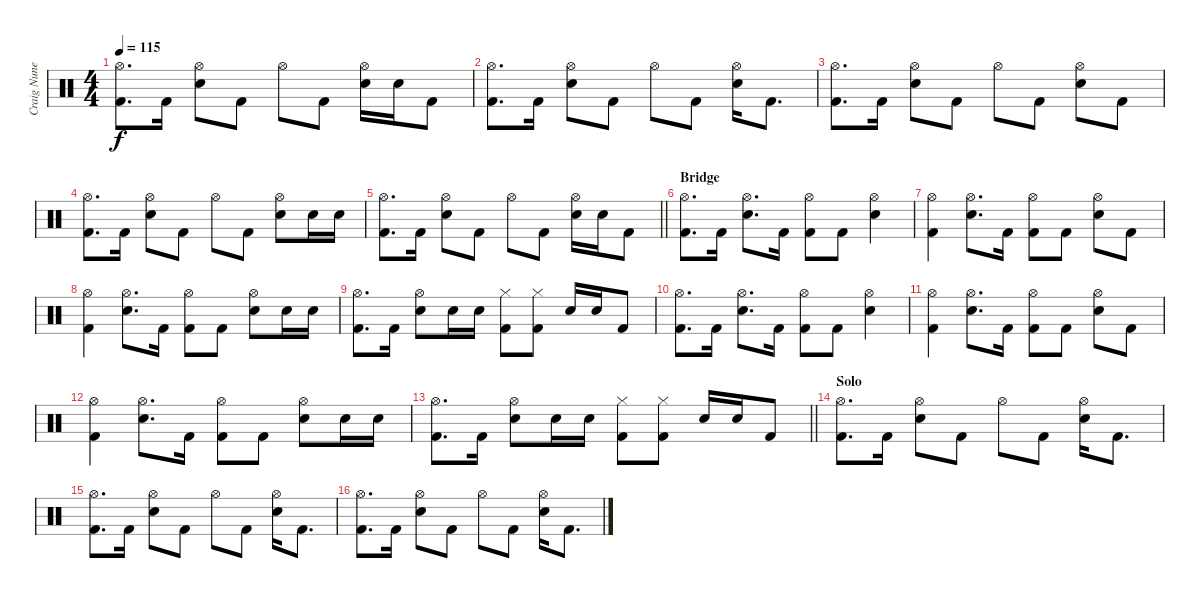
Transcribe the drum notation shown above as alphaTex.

\track ("Craig Nunenmacher" "Craig Nune") {instrument percussion}
\staff {score}
\articulation defaults
\ts (4 4)
\tempo 115
\clef neutral
\ks c
("Hi-Hat (open)" "Kick (hit) 2").8{d dy f} "Kick (hit) 2".16 ("Hi-Hat (open)" "Snare (hit) 2").8 "Kick (hit) 2".8 "Hi-Hat (open)".8 "Kick (hit) 2".8 ("Hi-Hat (open)" "Snare (hit) 2").16 "Snare (hit) 2".16 "Kick (hit) 2".8 |
("Hi-Hat (open)" "Kick (hit) 2").8{d} "Kick (hit) 2".16 ("Hi-Hat (open)" "Snare (hit) 2").8 "Kick (hit) 2".8 "Hi-Hat (open)".8 "Kick (hit) 2".8 ("Hi-Hat (open)" "Snare (hit) 2").16 "Kick (hit) 2".8{d} |
("Hi-Hat (open)" "Kick (hit) 2").8{d} "Kick (hit) 2".16 ("Hi-Hat (open)" "Snare (hit) 2").8 "Kick (hit) 2".8 "Hi-Hat (open)".8 "Kick (hit) 2".8 ("Hi-Hat (open)" "Snare (hit) 2").8 "Kick (hit) 2".8 |
("Hi-Hat (open)" "Kick (hit) 2").8{d} "Kick (hit) 2".16 ("Hi-Hat (open)" "Snare (hit) 2").8 "Kick (hit) 2".8 "Hi-Hat (open)".8 "Kick (hit) 2".8 ("Hi-Hat (open)" "Snare (hit) 2").8 "Snare (hit) 2".16 "Snare (hit) 2".16 |
\barLineRight lightlight
("Hi-Hat (open)" "Kick (hit) 2").8{d} "Kick (hit) 2".16 ("Hi-Hat (open)" "Snare (hit) 2").8 "Kick (hit) 2".8 "Hi-Hat (open)".8 "Kick (hit) 2".8 ("Hi-Hat (open)" "Snare (hit) 2").16 "Snare (hit) 2".16 "Kick (hit) 2".8 |
\section ("" "Bridge")
("Hi-Hat (open)" "Kick (hit) 2").8{d} "Kick (hit) 2".16 ("Hi-Hat (open)" "Snare (hit) 2").8{d} "Kick (hit) 2".16 ("Hi-Hat (open)" "Kick (hit) 2").8 "Kick (hit) 2".8 ("Hi-Hat (open)" "Snare (hit) 2").4 |
("Hi-Hat (open)" "Kick (hit) 2").4 ("Hi-Hat (open)" "Snare (hit) 2").8{d} "Kick (hit) 2".16 ("Hi-Hat (open)" "Kick (hit) 2").8 "Kick (hit) 2".8 ("Hi-Hat (open)" "Snare (hit) 2").8 "Kick (hit) 2".8 |
("Hi-Hat (open)" "Kick (hit) 2").4 ("Hi-Hat (open)" "Snare (hit) 2").8{d} "Kick (hit) 2".16 ("Hi-Hat (open)" "Kick (hit) 2").8 "Kick (hit) 2".8 ("Hi-Hat (open)" "Snare (hit) 2").8 "Snare (hit) 2".16 "Snare (hit) 2".16 |
("Hi-Hat (open)" "Kick (hit) 2").8{d} "Kick (hit) 2".16 ("Hi-Hat (open)" "Snare (hit) 2").8 "Snare (hit) 2".16 "Snare (hit) 2".16 ("Hi-Hat (closed)" "Kick (hit) 2").8 ("Hi-Hat (closed)" "Kick (hit) 2").8 "Snare (hit) 2".16 "Snare (hit) 2".16 "Kick (hit) 2".8 |
("Hi-Hat (open)" "Kick (hit) 2").8{d} "Kick (hit) 2".16 ("Hi-Hat (open)" "Snare (hit) 2").8{d} "Kick (hit) 2".16 ("Hi-Hat (open)" "Kick (hit) 2").8 "Kick (hit) 2".8 ("Hi-Hat (open)" "Snare (hit) 2").4 |
("Hi-Hat (open)" "Kick (hit) 2").4 ("Hi-Hat (open)" "Snare (hit) 2").8{d} "Kick (hit) 2".16 ("Hi-Hat (open)" "Kick (hit) 2").8 "Kick (hit) 2".8 ("Hi-Hat (open)" "Snare (hit) 2").8 "Kick (hit) 2".8 |
("Hi-Hat (open)" "Kick (hit) 2").4 ("Hi-Hat (open)" "Snare (hit) 2").8{d} "Kick (hit) 2".16 ("Hi-Hat (open)" "Kick (hit) 2").8 "Kick (hit) 2".8 ("Hi-Hat (open)" "Snare (hit) 2").8 "Snare (hit) 2".16 "Snare (hit) 2".16 |
\barLineRight lightlight
("Hi-Hat (open)" "Kick (hit) 2").8{d} "Kick (hit) 2".16 ("Hi-Hat (open)" "Snare (hit) 2").8 "Snare (hit) 2".16 "Snare (hit) 2".16 ("Hi-Hat (closed)" "Kick (hit) 2").8 ("Hi-Hat (closed)" "Kick (hit) 2").8 "Snare (hit) 2".16 "Snare (hit) 2".16 "Kick (hit) 2".8 |
\section ("" "Solo")
("Hi-Hat (open)" "Kick (hit) 2").8{d} "Kick (hit) 2".16 ("Hi-Hat (open)" "Snare (hit) 2").8 "Kick (hit) 2".8 "Hi-Hat (open)".8 "Kick (hit) 2".8 ("Hi-Hat (open)" "Snare (hit) 2").16 "Kick (hit) 2".8{d} |
("Hi-Hat (open)" "Kick (hit) 2").8{d} "Kick (hit) 2".16 ("Hi-Hat (open)" "Snare (hit) 2").8 "Kick (hit) 2".8 "Hi-Hat (open)".8 "Kick (hit) 2".8 ("Hi-Hat (open)" "Snare (hit) 2").16 "Kick (hit) 2".8{d} |
("Hi-Hat (open)" "Kick (hit) 2").8{d} "Kick (hit) 2".16 ("Hi-Hat (open)" "Snare (hit) 2").8 "Kick (hit) 2".8 "Hi-Hat (open)".8 "Kick (hit) 2".8 ("Hi-Hat (open)" "Snare (hit) 2").16 "Kick (hit) 2".8{d}
